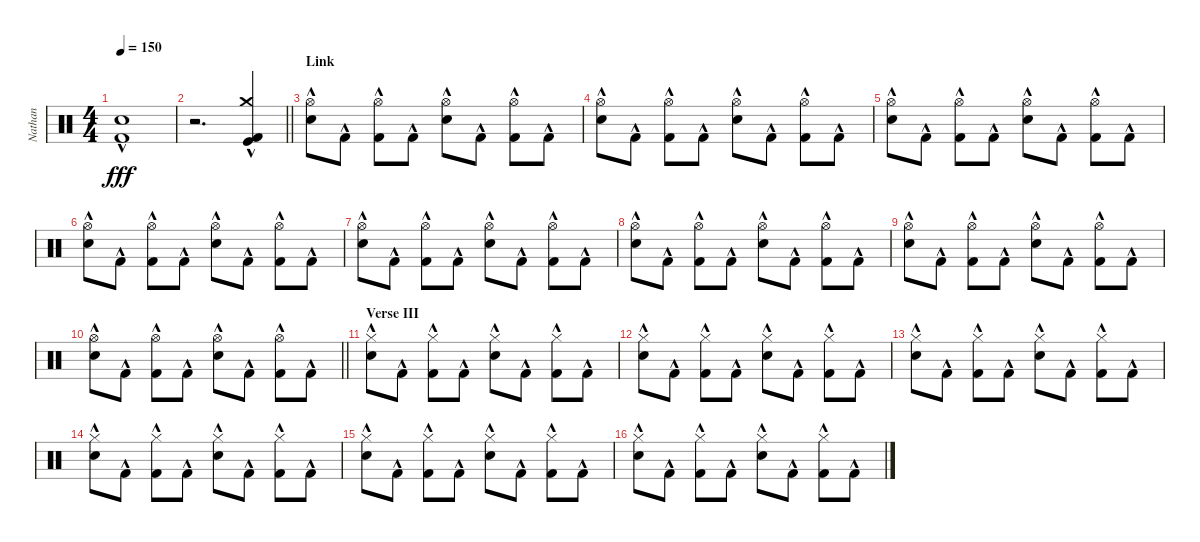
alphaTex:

\track ("Nathan" "Nathan") {instrument percussion}
\staff {score}
\articulation defaults
\ts (4 4)
\tempo 150
\clef neutral
\ks c
("Snare (hit) 2"{hac} "Kick (hit) 2"{hac}).1{dy fff} |
\barLineRight lightlight
r.2{d} ("Crash medium (hit)"{hac} "Kick (hit)"{hac} "Kick (hit) 2"{hac}).4 |
\section ("" "Link")
("Hi-Hat (open)" "Snare (hit) 2"{hac}).8 "Kick (hit) 2"{hac}.8 ("Hi-Hat (open)" "Kick (hit) 2"{hac}).8 "Kick (hit) 2"{hac}.8 ("Hi-Hat (open)" "Snare (hit) 2"{hac}).8 "Kick (hit) 2"{hac}.8 ("Hi-Hat (open)" "Kick (hit) 2"{hac}).8 "Kick (hit) 2"{hac}.8 |
("Hi-Hat (open)" "Snare (hit) 2"{hac}).8 "Kick (hit) 2"{hac}.8 ("Hi-Hat (open)" "Kick (hit) 2"{hac}).8 "Kick (hit) 2"{hac}.8 ("Hi-Hat (open)" "Snare (hit) 2"{hac}).8 "Kick (hit) 2"{hac}.8 ("Hi-Hat (open)" "Kick (hit) 2"{hac}).8 "Kick (hit) 2"{hac}.8 |
("Hi-Hat (open)" "Snare (hit) 2"{hac}).8 "Kick (hit) 2"{hac}.8 ("Hi-Hat (open)" "Kick (hit) 2"{hac}).8 "Kick (hit) 2"{hac}.8 ("Hi-Hat (open)" "Snare (hit) 2"{hac}).8 "Kick (hit) 2"{hac}.8 ("Hi-Hat (open)" "Kick (hit) 2"{hac}).8 "Kick (hit) 2"{hac}.8 |
("Hi-Hat (open)" "Snare (hit) 2"{hac}).8 "Kick (hit) 2"{hac}.8 ("Hi-Hat (open)" "Kick (hit) 2"{hac}).8 "Kick (hit) 2"{hac}.8 ("Hi-Hat (open)" "Snare (hit) 2"{hac}).8 "Kick (hit) 2"{hac}.8 ("Hi-Hat (open)" "Kick (hit) 2"{hac}).8 "Kick (hit) 2"{hac}.8 |
("Hi-Hat (open)" "Snare (hit) 2"{hac}).8 "Kick (hit) 2"{hac}.8 ("Hi-Hat (open)" "Kick (hit) 2"{hac}).8 "Kick (hit) 2"{hac}.8 ("Hi-Hat (open)" "Snare (hit) 2"{hac}).8 "Kick (hit) 2"{hac}.8 ("Hi-Hat (open)" "Kick (hit) 2"{hac}).8 "Kick (hit) 2"{hac}.8 |
("Hi-Hat (open)" "Snare (hit) 2"{hac}).8 "Kick (hit) 2"{hac}.8 ("Hi-Hat (open)" "Kick (hit) 2"{hac}).8 "Kick (hit) 2"{hac}.8 ("Hi-Hat (open)" "Snare (hit) 2"{hac}).8 "Kick (hit) 2"{hac}.8 ("Hi-Hat (open)" "Kick (hit) 2"{hac}).8 "Kick (hit) 2"{hac}.8 |
("Hi-Hat (open)" "Snare (hit) 2"{hac}).8 "Kick (hit) 2"{hac}.8 ("Hi-Hat (open)" "Kick (hit) 2"{hac}).8 "Kick (hit) 2"{hac}.8 ("Hi-Hat (open)" "Snare (hit) 2"{hac}).8 "Kick (hit) 2"{hac}.8 ("Hi-Hat (open)" "Kick (hit) 2"{hac}).8 "Kick (hit) 2"{hac}.8 |
\barLineRight lightlight
("Hi-Hat (open)" "Snare (hit) 2"{hac}).8 "Kick (hit) 2"{hac}.8 ("Hi-Hat (open)" "Kick (hit) 2"{hac}).8 "Kick (hit) 2"{hac}.8 ("Hi-Hat (open)" "Snare (hit) 2"{hac}).8 "Kick (hit) 2"{hac}.8 ("Hi-Hat (open)" "Kick (hit) 2"{hac}).8 "Kick (hit) 2"{hac}.8 |
\section ("" "Verse III")
("Hi-Hat (closed)" "Snare (hit) 2"{hac}).8 "Kick (hit) 2"{hac}.8 ("Hi-Hat (closed)" "Kick (hit) 2"{hac}).8 "Kick (hit) 2"{hac}.8 ("Hi-Hat (closed)" "Snare (hit) 2"{hac}).8 "Kick (hit) 2"{hac}.8 ("Hi-Hat (closed)" "Kick (hit) 2"{hac}).8 "Kick (hit) 2"{hac}.8 |
("Hi-Hat (closed)" "Snare (hit) 2"{hac}).8 "Kick (hit) 2"{hac}.8 ("Hi-Hat (closed)" "Kick (hit) 2"{hac}).8 "Kick (hit) 2"{hac}.8 ("Hi-Hat (closed)" "Snare (hit) 2"{hac}).8 "Kick (hit) 2"{hac}.8 ("Hi-Hat (closed)" "Kick (hit) 2"{hac}).8 "Kick (hit) 2"{hac}.8 |
("Hi-Hat (closed)" "Snare (hit) 2"{hac}).8 "Kick (hit) 2"{hac}.8 ("Hi-Hat (closed)" "Kick (hit) 2"{hac}).8 "Kick (hit) 2"{hac}.8 ("Hi-Hat (closed)" "Snare (hit) 2"{hac}).8 "Kick (hit) 2"{hac}.8 ("Hi-Hat (closed)" "Kick (hit) 2"{hac}).8 "Kick (hit) 2"{hac}.8 |
("Hi-Hat (closed)" "Snare (hit) 2"{hac}).8 "Kick (hit) 2"{hac}.8 ("Hi-Hat (closed)" "Kick (hit) 2"{hac}).8 "Kick (hit) 2"{hac}.8 ("Hi-Hat (closed)" "Snare (hit) 2"{hac}).8 "Kick (hit) 2"{hac}.8 ("Hi-Hat (closed)" "Kick (hit) 2"{hac}).8 "Kick (hit) 2"{hac}.8 |
("Hi-Hat (closed)" "Snare (hit) 2"{hac}).8 "Kick (hit) 2"{hac}.8 ("Hi-Hat (closed)" "Kick (hit) 2"{hac}).8 "Kick (hit) 2"{hac}.8 ("Hi-Hat (closed)" "Snare (hit) 2"{hac}).8 "Kick (hit) 2"{hac}.8 ("Hi-Hat (closed)" "Kick (hit) 2"{hac}).8 "Kick (hit) 2"{hac}.8 |
("Hi-Hat (closed)" "Snare (hit) 2"{hac}).8 "Kick (hit) 2"{hac}.8 ("Hi-Hat (closed)" "Kick (hit) 2"{hac}).8 "Kick (hit) 2"{hac}.8 ("Hi-Hat (closed)" "Snare (hit) 2"{hac}).8 "Kick (hit) 2"{hac}.8 ("Hi-Hat (closed)" "Kick (hit) 2"{hac}).8 "Kick (hit) 2"{hac}.8
